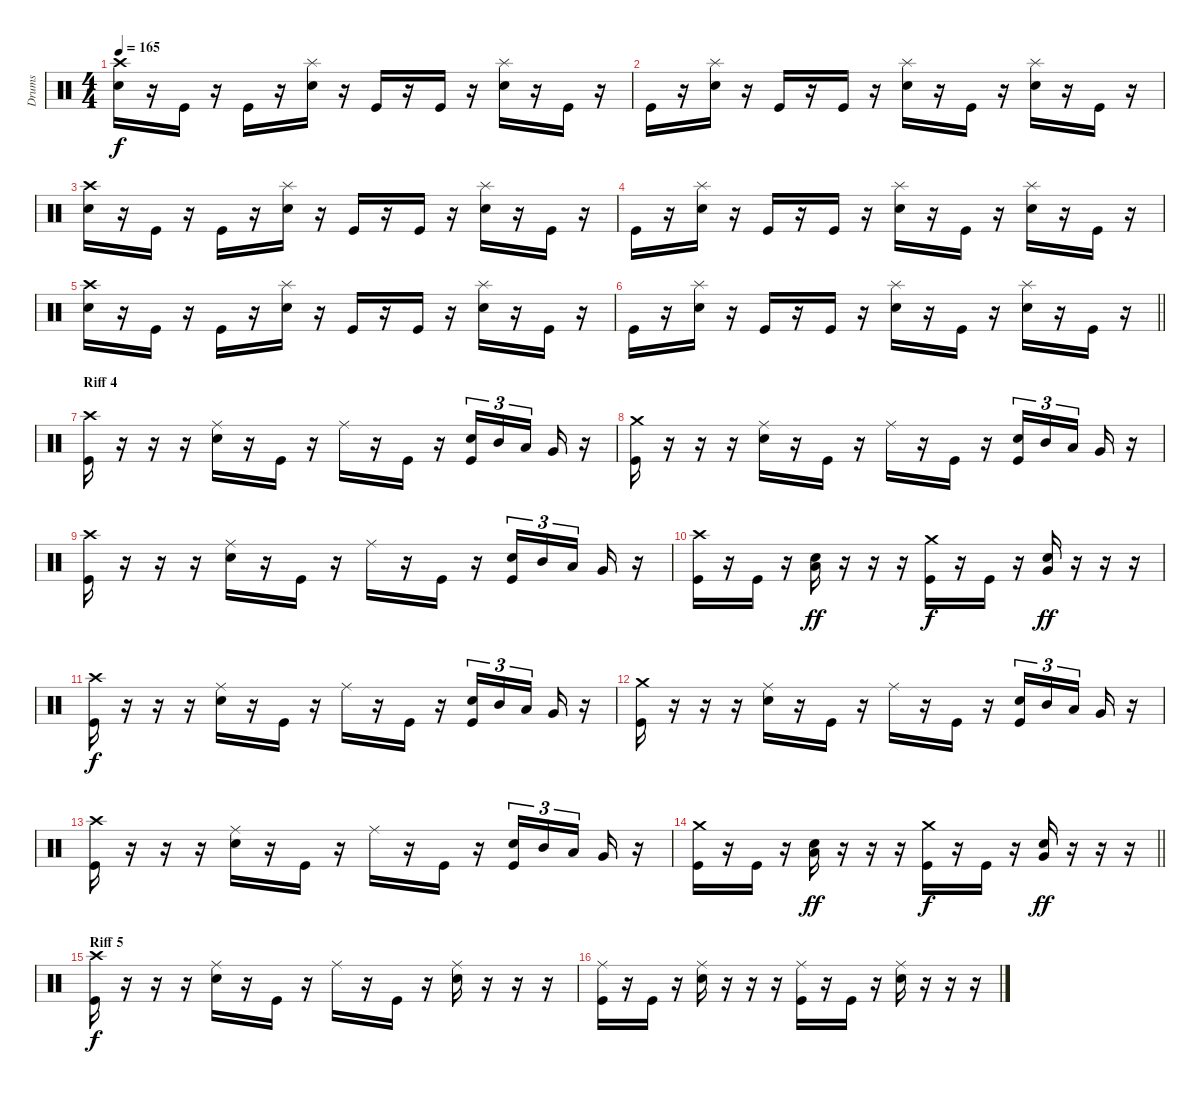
\track ("Drums" "Drums") {instrument percussion}
\staff {score}
\articulation defaults
\ts (4 4)
\tempo 165
\clef neutral
\ks c
("Crash high (hit)" "Electric Snare (hit)").16{dy f} r.16 "Kick (hit)".16 r.16 "Kick (hit)".16 r.16 ("Splash (hit)" "Electric Snare (hit)").16 r.16 "Kick (hit)".16 r.16 "Kick (hit)".16 r.16 ("Splash (hit)" "Electric Snare (hit)").16 r.16 "Kick (hit)".16 r.16 |
"Kick (hit)".16 r.16 ("Splash (hit)" "Electric Snare (hit)").16 r.16 "Kick (hit)".16 r.16 "Kick (hit)".16 r.16 ("Splash (hit)" "Electric Snare (hit)").16 r.16 "Kick (hit)".16 r.16 ("Splash (hit)" "Electric Snare (hit)").16 r.16 "Kick (hit)".16 r.16 |
("Crash high (hit)" "Electric Snare (hit)").16 r.16 "Kick (hit)".16 r.16 "Kick (hit)".16 r.16 ("Splash (hit)" "Electric Snare (hit)").16 r.16 "Kick (hit)".16 r.16 "Kick (hit)".16 r.16 ("Splash (hit)" "Electric Snare (hit)").16 r.16 "Kick (hit)".16 r.16 |
"Kick (hit)".16 r.16 ("Splash (hit)" "Electric Snare (hit)").16 r.16 "Kick (hit)".16 r.16 "Kick (hit)".16 r.16 ("Splash (hit)" "Electric Snare (hit)").16 r.16 "Kick (hit)".16 r.16 ("Splash (hit)" "Electric Snare (hit)").16 r.16 "Kick (hit)".16 r.16 |
("Crash high (hit)" "Electric Snare (hit)").16 r.16 "Kick (hit)".16 r.16 "Kick (hit)".16 r.16 ("Splash (hit)" "Electric Snare (hit)").16 r.16 "Kick (hit)".16 r.16 "Kick (hit)".16 r.16 ("Splash (hit)" "Electric Snare (hit)").16 r.16 "Kick (hit)".16 r.16 |
\barLineRight lightlight "Kick (hit)".16
r.16 ("Splash (hit)" "Electric Snare (hit)").16 r.16 "Kick (hit)".16 r.16 "Kick (hit)".16 r.16 ("Splash (hit)" "Electric Snare (hit)").16 r.16 "Kick (hit)".16 r.16 ("Splash (hit)" "Electric Snare (hit)").16 r.16 "Kick (hit)".16 r.16 |
\section ("" "Riff 4")
("Crash high (hit)" "Kick (hit)").16 r.16 r.16 r.16 ("Ride (middle)" "Electric Snare (hit)").16 r.16 "Kick (hit)".16 r.16 "Ride (middle)".16 r.16 "Kick (hit)".16 r.16 ("Electric Snare (hit)" "Kick (hit)").16{tu (3 2)} "Mid Tom (hit)".16{tu (3 2)} "Low Tom (hit)".16{tu (3 2) beam splitsecondary} "Very Low Tom (hit)".16 r.16 |
("Crash medium (hit)" "Kick (hit)").16 r.16 r.16 r.16 ("Ride (middle)" "Electric Snare (hit)").16 r.16 "Kick (hit)".16 r.16 "Ride (middle)".16 r.16 "Kick (hit)".16 r.16 ("Electric Snare (hit)" "Kick (hit)").16{tu (3 2)} "Mid Tom (hit)".16{tu (3 2)} "Low Tom (hit)".16{tu (3 2) beam splitsecondary} "Very Low Tom (hit)".16 r.16 |
("Crash high (hit)" "Kick (hit)").16 r.16 r.16 r.16 ("Ride (middle)" "Electric Snare (hit)").16 r.16 "Kick (hit)".16 r.16 "Ride (middle)".16 r.16 "Kick (hit)".16 r.16 ("Electric Snare (hit)" "Kick (hit)").16{tu (3 2)} "Mid Tom (hit)".16{tu (3 2)} "Low Tom (hit)".16{tu (3 2) beam splitsecondary} "Very Low Tom (hit)".16 r.16 |
("Crash high (hit)" "Kick (hit)").16 r.16 "Kick (hit)".16 r.16 ("Electric Snare (hit)" "Low Tom (hit)").16{dy ff} r.16 r.16 r.16 ("Crash medium (hit)" "Kick (hit)").16{dy f} r.16 "Kick (hit)".16 r.16 ("Electric Snare (hit)" "Very Low Tom (hit)").16{dy ff} r.16 r.16 r.16 |
("Crash high (hit)" "Kick (hit)").16{dy f} r.16 r.16 r.16 ("Ride (middle)" "Electric Snare (hit)").16 r.16 "Kick (hit)".16 r.16 "Ride (middle)".16 r.16 "Kick (hit)".16 r.16 ("Electric Snare (hit)" "Kick (hit)").16{tu (3 2)} "Mid Tom (hit)".16{tu (3 2)} "Low Tom (hit)".16{tu (3 2) beam splitsecondary} "Very Low Tom (hit)".16 r.16 |
("Crash medium (hit)" "Kick (hit)").16 r.16 r.16 r.16 ("Ride (middle)" "Electric Snare (hit)").16 r.16 "Kick (hit)".16 r.16 "Ride (middle)".16 r.16 "Kick (hit)".16 r.16 ("Electric Snare (hit)" "Kick (hit)").16{tu (3 2)} "Mid Tom (hit)".16{tu (3 2)} "Low Tom (hit)".16{tu (3 2) beam splitsecondary} "Very Low Tom (hit)".16 r.16 |
("Crash high (hit)" "Kick (hit)").16 r.16 r.16 r.16 ("Ride (middle)" "Electric Snare (hit)").16 r.16 "Kick (hit)".16 r.16 "Ride (middle)".16 r.16 "Kick (hit)".16 r.16 ("Electric Snare (hit)" "Kick (hit)").16{tu (3 2)} "Mid Tom (hit)".16{tu (3 2)} "Low Tom (hit)".16{tu (3 2) beam splitsecondary} "Very Low Tom (hit)".16 r.16 |
\barLineRight lightlight
("Crash medium (hit)" "Kick (hit)").16 r.16 "Kick (hit)".16 r.16 ("Electric Snare (hit)" "Low Tom (hit)").16{dy ff} r.16 r.16 r.16 ("Crash medium (hit)" "Kick (hit)").16{dy f} r.16 "Kick (hit)".16 r.16 ("Electric Snare (hit)" "Very Low Tom (hit)").16{dy ff} r.16 r.16 r.16 |
\section ("" "Riff 5")
("Crash high (hit)" "Kick (hit)").16{dy f} r.16 r.16 r.16 ("Ride (middle)" "Electric Snare (hit)").16 r.16 "Kick (hit)".16 r.16 "Ride (middle)".16 r.16 "Kick (hit)".16 r.16 ("Ride (middle)" "Electric Snare (hit)").16 r.16 r.16 r.16 |
("Ride (middle)" "Kick (hit)").16 r.16 "Kick (hit)".16 r.16 ("Ride (middle)" "Electric Snare (hit)").16 r.16 r.16 r.16 ("Ride (middle)" "Kick (hit)").16 r.16 "Kick (hit)".16 r.16 ("Ride (middle)" "Electric Snare (hit)").16 r.16 r.16 r.16
